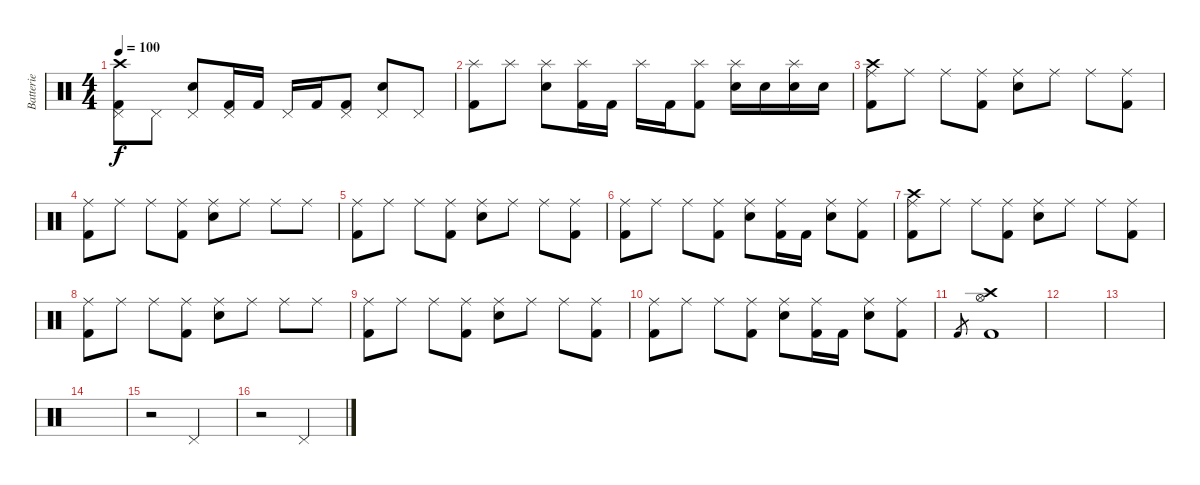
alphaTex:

\track ("Batterie" "Batterie") {instrument percussion}
\staff {score}
\articulation defaults
\ts (4 4)
\tempo 100
\clef neutral
\ks c
("Crash high (hit)" "Pedal Hi-Hat (hit)" "Kick (hit) 2").8{dy f} "Pedal Hi-Hat (hit)".8 ("Pedal Hi-Hat (hit)" "Electric Snare (hit)").8 ("Pedal Hi-Hat (hit)" "Kick (hit) 2").16 "Kick (hit) 2".16 "Pedal Hi-Hat (hit)".16 "Kick (hit) 2".16 ("Pedal Hi-Hat (hit)" "Kick (hit) 2").8 ("Pedal Hi-Hat (hit)" "Electric Snare (hit)").8 "Pedal Hi-Hat (hit)".8 |
("Splash (hit)" "Kick (hit) 2").8 "Splash (hit)".8 ("Splash (hit)" "Electric Snare (hit)").8 ("Splash (hit)" "Kick (hit) 2").16 "Kick (hit) 2".16 "Splash (hit)".16 "Kick (hit) 2".16 ("Splash (hit)" "Kick (hit) 2").8 ("Splash (hit)" "Electric Snare (hit)").16 "Electric Snare (hit)".16 ("Splash (hit)" "Electric Snare (hit)").16 "Electric Snare (hit)".16 |
("Crash high (hit)" "Ride (middle)" "Kick (hit) 2").8 "Ride (middle)".8 "Ride (middle)".8 ("Ride (middle)" "Kick (hit) 2").8 ("Ride (middle)" "Electric Snare (hit)").8 "Ride (middle)".8 "Ride (middle)".8 ("Ride (middle)" "Kick (hit) 2").8 |
("Ride (middle)" "Kick (hit) 2").8 "Ride (middle)".8 "Ride (middle)".8 ("Ride (middle)" "Kick (hit) 2").8 ("Ride (middle)" "Electric Snare (hit)").8 "Ride (middle)".8 "Ride (middle)".8 "Ride (middle)".8 |
("Ride (middle)" "Kick (hit) 2").8 "Ride (middle)".8 "Ride (middle)".8 ("Ride (middle)" "Kick (hit) 2").8 ("Ride (middle)" "Electric Snare (hit)").8 "Ride (middle)".8 "Ride (middle)".8 ("Ride (middle)" "Kick (hit) 2").8 |
("Ride (middle)" "Kick (hit) 2").8 "Ride (middle)".8 "Ride (middle)".8 ("Ride (middle)" "Kick (hit) 2").8 ("Ride (middle)" "Electric Snare (hit)").8 ("Ride (middle)" "Kick (hit) 2").16 "Kick (hit) 2".16 ("Ride (middle)" "Electric Snare (hit)").8 ("Ride (middle)" "Kick (hit) 2").8 |
("Crash high (hit)" "Ride (middle)" "Kick (hit) 2").8 "Ride (middle)".8 "Ride (middle)".8 ("Ride (middle)" "Kick (hit) 2").8 ("Ride (middle)" "Electric Snare (hit)").8 "Ride (middle)".8 "Ride (middle)".8 ("Ride (middle)" "Kick (hit) 2").8 |
("Ride (middle)" "Kick (hit) 2").8 "Ride (middle)".8 "Ride (middle)".8 ("Ride (middle)" "Kick (hit) 2").8 ("Ride (middle)" "Electric Snare (hit)").8 "Ride (middle)".8 "Ride (middle)".8 "Ride (middle)".8 |
("Ride (middle)" "Kick (hit) 2").8 "Ride (middle)".8 "Ride (middle)".8 ("Ride (middle)" "Kick (hit) 2").8 ("Ride (middle)" "Electric Snare (hit)").8 "Ride (middle)".8 "Ride (middle)".8 ("Ride (middle)" "Kick (hit) 2").8 |
("Ride (middle)" "Kick (hit) 2").8 "Ride (middle)".8 "Ride (middle)".8 ("Ride (middle)" "Kick (hit) 2").8 ("Ride (middle)" "Electric Snare (hit)").8 ("Ride (middle)" "Kick (hit) 2").16 "Kick (hit) 2".16 ("Ride (middle)" "Electric Snare (hit)").8 ("Ride (middle)" "Kick (hit) 2").8 |
"Kick (hit) 2".8{gr} ("Crash high (hit)" "Hi-Hat (open)" "Kick (hit) 2").1 |
|
|
|
r.2 "Pedal Hi-Hat (hit)".2 |
r.2 "Pedal Hi-Hat (hit)".2
